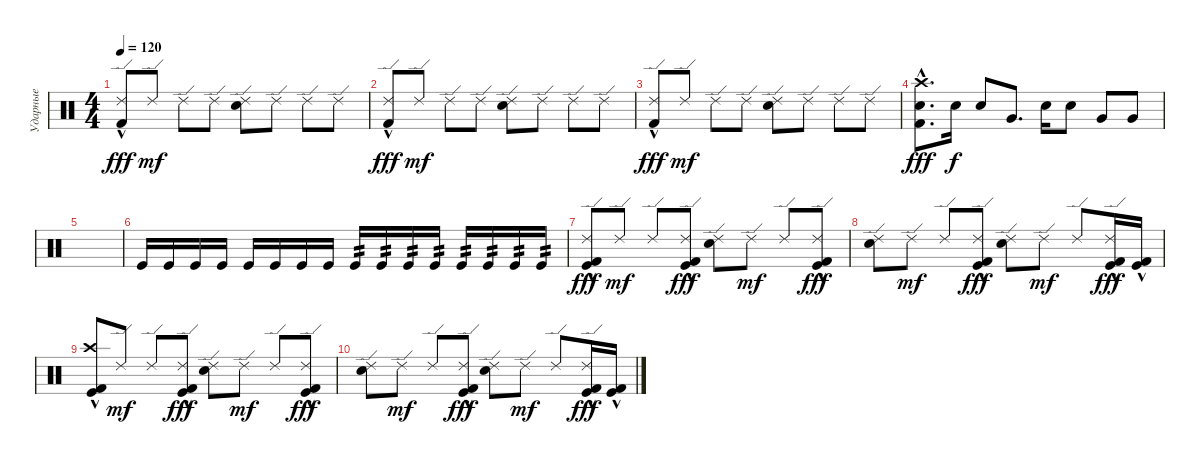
\track ("Ударные" "Ударные") {instrument percussion}
\staff {score}
\articulation defaults
\ts (4 4)
\tempo 120
\clef neutral
\ks c
("Ride (edge) 2" "Kick (hit) 2"{hac}).8{dy fff} "Ride (edge) 2".8{dy mf} "Ride (edge) 2".8 "Ride (edge) 2".8 ("Ride (edge) 2" "Electric Snare (hit)").8 "Ride (edge) 2".8 "Ride (edge) 2".8 "Ride (edge) 2".8 |
("Ride (edge) 2" "Kick (hit) 2"{hac}).8{dy fff} "Ride (edge) 2".8{dy mf} "Ride (edge) 2".8 "Ride (edge) 2".8 ("Ride (edge) 2" "Electric Snare (hit)").8 "Ride (edge) 2".8 "Ride (edge) 2".8 "Ride (edge) 2".8 |
("Ride (edge) 2" "Kick (hit) 2"{hac}).8{dy fff} "Ride (edge) 2".8{dy mf} "Ride (edge) 2".8 "Ride (edge) 2".8 ("Ride (edge) 2" "Electric Snare (hit)").8 "Ride (edge) 2".8 "Ride (edge) 2".8 "Ride (edge) 2".8 |
("Crash high (hit)" "Electric Snare (hit)" "Kick (hit) 2"{hac}).8{d dy fff} "Electric Snare (hit)".16{dy f} "Electric Snare (hit)".8 "Very Low Tom (hit)".8{d} "Electric Snare (hit)".16 "Electric Snare (hit)".8 "Very Low Tom (hit)".8 "Very Low Tom (hit)".8 |
|
"Kick (hit)".16 "Kick (hit)".16 "Kick (hit)".16 "Kick (hit)".16 "Kick (hit)".16 "Kick (hit)".16 "Kick (hit)".16 "Kick (hit)".16 "Kick (hit)".16{tp 2} "Kick (hit)".16{tp 2} "Kick (hit)".16{tp 2} "Kick (hit)".16{tp 2} "Kick (hit)".16{tp 2} "Kick (hit)".16{tp 2} "Kick (hit)".16{tp 2} "Kick (hit)".16{tp 2} |
("Ride (edge) 2" "Kick (hit)"{hac} "Kick (hit) 2"{hac}).8{dy fff} "Ride (edge) 2".8{dy mf} "Ride (edge) 2".8 ("Ride (edge) 2" "Kick (hit)"{hac} "Kick (hit) 2"{hac}).8{dy fff} ("Ride (edge) 2" "Electric Snare (hit)").8 "Ride (edge) 2".8{dy mf} "Ride (edge) 2".8 ("Ride (edge) 2" "Kick (hit)"{hac} "Kick (hit) 2"{hac}).8{dy fff} |
("Ride (edge) 2" "Electric Snare (hit)").8 "Ride (edge) 2".8{dy mf} "Ride (edge) 2".8 ("Ride (edge) 2" "Kick (hit)"{hac} "Kick (hit) 2"{hac}).8{dy fff} ("Ride (edge) 2" "Electric Snare (hit)").8 "Ride (edge) 2".8{dy mf} "Ride (edge) 2".8 ("Ride (edge) 2" "Kick (hit)"{hac} "Kick (hit) 2"{hac}).16{dy fff} ("Kick (hit)"{hac} "Kick (hit) 2"{hac}).16 |
("Crash high (hit)" "Kick (hit)"{hac} "Kick (hit) 2"{hac}).8 "Ride (edge) 2".8{dy mf} "Ride (edge) 2".8 ("Ride (edge) 2" "Kick (hit)"{hac} "Kick (hit) 2"{hac}).8{dy fff} ("Ride (edge) 2" "Electric Snare (hit)").8 "Ride (edge) 2".8{dy mf} "Ride (edge) 2".8 ("Ride (edge) 2" "Kick (hit)"{hac} "Kick (hit) 2"{hac}).8{dy fff} |
("Ride (edge) 2" "Electric Snare (hit)").8 "Ride (edge) 2".8{dy mf} "Ride (edge) 2".8 ("Ride (edge) 2" "Kick (hit)"{hac} "Kick (hit) 2"{hac}).8{dy fff} ("Ride (edge) 2" "Electric Snare (hit)").8 "Ride (edge) 2".8{dy mf} "Ride (edge) 2".8 ("Ride (edge) 2" "Kick (hit)"{hac} "Kick (hit) 2"{hac}).16{dy fff} ("Kick (hit)"{hac} "Kick (hit) 2"{hac}).16
